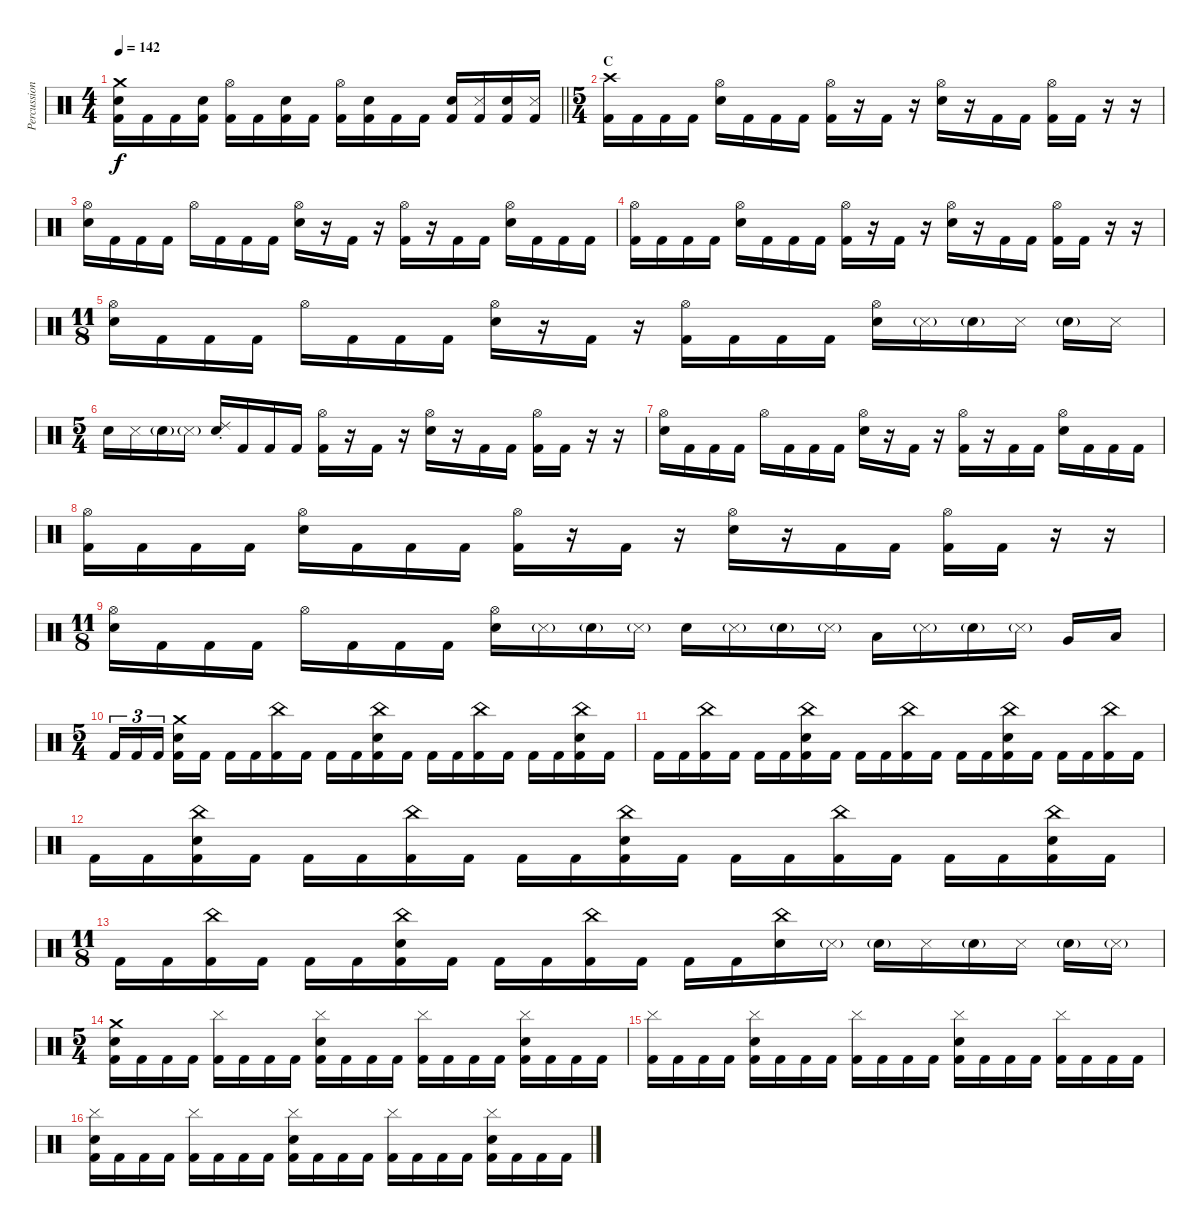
\track ("Percussion" "Percussion") {instrument percussion}
\staff {score}
\articulation defaults
\ts (4 4)
\tempo 142
\clef neutral
\barLineRight lightlight
\ks c
("Crash medium (hit)" "Snare (hit) 2" "Kick (hit) 2").16{dy f} "Kick (hit) 2".16 "Kick (hit) 2".16 ("Snare (hit) 2" "Kick (hit) 2").16 ("Hi-Hat (open)" "Kick (hit) 2").16 "Kick (hit) 2".16 ("Snare (hit) 2" "Kick (hit) 2").16 "Kick (hit) 2".16 ("Hi-Hat (open)" "Kick (hit) 2").16 ("Snare (hit) 2" "Kick (hit) 2").16 "Kick (hit) 2".16 "Kick (hit) 2".16 ("Snare (hit) 2" "Kick (hit) 2").16 ("Metronome (hit)" "Kick (hit) 2").16 ("Snare (hit) 2" "Kick (hit) 2").16 ("Metronome (hit)" "Kick (hit) 2").16 |
\ts (5 4)
\section ("" "C")
("Crash high (hit)" "Kick (hit) 2").16 "Kick (hit) 2".16 "Kick (hit) 2".16 "Kick (hit) 2".16 ("Hi-Hat (open)" "Snare (hit) 2").16 "Kick (hit) 2".16 "Kick (hit) 2".16 "Kick (hit) 2".16 ("Hi-Hat (open)" "Kick (hit) 2").16 r.16 "Kick (hit) 2".16 r.16 ("Hi-Hat (open)" "Snare (hit) 2").16 r.16 "Kick (hit) 2".16 "Kick (hit) 2".16 ("Hi-Hat (open)" "Kick (hit) 2").16 "Kick (hit) 2".16 r.16 r.16 |
("Hi-Hat (open)" "Snare (hit) 2").16 "Kick (hit) 2".16 "Kick (hit) 2".16 "Kick (hit) 2".16 "Hi-Hat (open)".16 "Kick (hit) 2".16 "Kick (hit) 2".16 "Kick (hit) 2".16 ("Hi-Hat (open)" "Snare (hit) 2").16 r.16 "Kick (hit) 2".16 r.16 ("Hi-Hat (open)" "Kick (hit) 2").16 r.16 "Kick (hit) 2".16 "Kick (hit) 2".16 ("Hi-Hat (open)" "Snare (hit) 2").16 "Kick (hit) 2".16 "Kick (hit) 2".16 "Kick (hit) 2".16 |
("Hi-Hat (open)" "Kick (hit) 2").16 "Kick (hit) 2".16 "Kick (hit) 2".16 "Kick (hit) 2".16 ("Hi-Hat (open)" "Snare (hit) 2").16 "Kick (hit) 2".16 "Kick (hit) 2".16 "Kick (hit) 2".16 ("Hi-Hat (open)" "Kick (hit) 2").16 r.16 "Kick (hit) 2".16 r.16 ("Hi-Hat (open)" "Snare (hit) 2").16 r.16 "Kick (hit) 2".16 "Kick (hit) 2".16 ("Hi-Hat (open)" "Kick (hit) 2").16 "Kick (hit) 2".16 r.16 r.16 |
\ts (11 8)
("Hi-Hat (open)" "Snare (hit) 2").16 "Kick (hit) 2".16 "Kick (hit) 2".16 "Kick (hit) 2".16 "Hi-Hat (open)".16 "Kick (hit) 2".16 "Kick (hit) 2".16 "Kick (hit) 2".16 ("Hi-Hat (open)" "Snare (hit) 2").16 r.16 "Kick (hit) 2".16 r.16 ("Hi-Hat (open)" "Kick (hit) 2").16 "Kick (hit) 2".16 "Kick (hit) 2".16 "Kick (hit) 2".16 ("Hi-Hat (open)" "Snare (hit) 2").16 "Metronome (hit)"{g}.16 "Snare (hit) 2"{g}.16 "Metronome (hit)".16 "Snare (hit) 2"{g}.16 "Metronome (hit)".16 |
\ts (5 4)
"Snare (hit) 2".16 "Metronome (hit)".16 "Snare (hit) 2"{g}.16 "Metronome (hit)"{g}.16 ("Ride (choke) 2" "Snare (hit) 2").16 "Kick (hit) 2".16 "Kick (hit) 2".16 "Kick (hit) 2".16 ("Hi-Hat (open)" "Kick (hit) 2").16 r.16 "Kick (hit) 2".16 r.16 ("Hi-Hat (open)" "Snare (hit) 2").16 r.16 "Kick (hit) 2".16 "Kick (hit) 2".16 ("Hi-Hat (open)" "Kick (hit) 2").16 "Kick (hit) 2".16 r.16 r.16 |
("Hi-Hat (open)" "Snare (hit) 2").16 "Kick (hit) 2".16 "Kick (hit) 2".16 "Kick (hit) 2".16 "Hi-Hat (open)".16 "Kick (hit) 2".16 "Kick (hit) 2".16 "Kick (hit) 2".16 ("Hi-Hat (open)" "Snare (hit) 2").16 r.16 "Kick (hit) 2".16 r.16 ("Hi-Hat (open)" "Kick (hit) 2").16 r.16 "Kick (hit) 2".16 "Kick (hit) 2".16 ("Hi-Hat (open)" "Snare (hit) 2").16 "Kick (hit) 2".16 "Kick (hit) 2".16 "Kick (hit) 2".16 |
("Hi-Hat (open)" "Kick (hit) 2").16 "Kick (hit) 2".16 "Kick (hit) 2".16 "Kick (hit) 2".16 ("Hi-Hat (open)" "Snare (hit) 2").16 "Kick (hit) 2".16 "Kick (hit) 2".16 "Kick (hit) 2".16 ("Hi-Hat (open)" "Kick (hit) 2").16 r.16 "Kick (hit) 2".16 r.16 ("Hi-Hat (open)" "Snare (hit) 2").16 r.16 "Kick (hit) 2".16 "Kick (hit) 2".16 ("Hi-Hat (open)" "Kick (hit) 2").16 "Kick (hit) 2".16 r.16 r.16 |
\ts (11 8)
("Hi-Hat (open)" "Snare (hit) 2").16 "Kick (hit) 2".16 "Kick (hit) 2".16 "Kick (hit) 2".16 "Hi-Hat (open)".16 "Kick (hit) 2".16 "Kick (hit) 2".16 "Kick (hit) 2".16 ("Hi-Hat (open)" "Snare (hit) 2").16 "Metronome (hit)"{g}.16 "Snare (hit) 2"{g}.16 "Metronome (hit)"{g}.16 "Snare (hit) 2".16 "Metronome (hit)"{g}.16 "Snare (hit) 2"{g}.16 "Metronome (hit)"{g}.16 "Low Tom (hit)".16 "Metronome (hit)"{g}.16 "Snare (hit) 2"{g}.16 "Metronome (hit)"{g}.16 "Very Low Tom (hit)".16 "Low Floor Tom (hit)".16 |
\ts (5 4)
"Kick (hit) 2".16{tu (3 2)} "Kick (hit) 2".16{tu (3 2)} "Kick (hit) 2".16{tu (3 2) beam splitsecondary} ("Crash medium (hit)" "Snare (hit) 2" "Kick (hit) 2").16 "Kick (hit) 2".16 "Kick (hit) 2".16 "Kick (hit) 2".16 ("China (hit)" "Kick (hit) 2").16 "Kick (hit) 2".16 "Kick (hit) 2".16 "Kick (hit) 2".16 ("China (hit)" "Snare (hit) 2" "Kick (hit) 2").16 "Kick (hit) 2".16 "Kick (hit) 2".16 "Kick (hit) 2".16 ("China (hit)" "Kick (hit) 2").16 "Kick (hit) 2".16 "Kick (hit) 2".16 "Kick (hit) 2".16 ("China (hit)" "Snare (hit) 2" "Kick (hit) 2").16 "Kick (hit) 2".16 |
"Kick (hit) 2".16 "Kick (hit) 2".16 ("China (hit)" "Kick (hit) 2").16 "Kick (hit) 2".16 "Kick (hit) 2".16 "Kick (hit) 2".16 ("China (hit)" "Snare (hit) 2" "Kick (hit) 2").16 "Kick (hit) 2".16 "Kick (hit) 2".16 "Kick (hit) 2".16 ("China (hit)" "Kick (hit) 2").16 "Kick (hit) 2".16 "Kick (hit) 2".16 "Kick (hit) 2".16 ("China (hit)" "Snare (hit) 2" "Kick (hit) 2").16 "Kick (hit) 2".16 "Kick (hit) 2".16 "Kick (hit) 2".16 ("China (hit)" "Kick (hit) 2").16 "Kick (hit) 2".16 |
"Kick (hit) 2".16 "Kick (hit) 2".16 ("China (hit)" "Snare (hit) 2" "Kick (hit) 2").16 "Kick (hit) 2".16 "Kick (hit) 2".16 "Kick (hit) 2".16 ("China (hit)" "Kick (hit) 2").16 "Kick (hit) 2".16 "Kick (hit) 2".16 "Kick (hit) 2".16 ("China (hit)" "Snare (hit) 2" "Kick (hit) 2").16 "Kick (hit) 2".16 "Kick (hit) 2".16 "Kick (hit) 2".16 ("China (hit)" "Kick (hit) 2").16 "Kick (hit) 2".16 "Kick (hit) 2".16 "Kick (hit) 2".16 ("China (hit)" "Snare (hit) 2" "Kick (hit) 2").16 "Kick (hit) 2".16 |
\ts (11 8)
"Kick (hit) 2".16 "Kick (hit) 2".16 ("China (hit)" "Kick (hit) 2").16 "Kick (hit) 2".16 "Kick (hit) 2".16 "Kick (hit) 2".16 ("China (hit)" "Snare (hit) 2" "Kick (hit) 2").16 "Kick (hit) 2".16 "Kick (hit) 2".16 "Kick (hit) 2".16 ("China (hit)" "Kick (hit) 2").16 "Kick (hit) 2".16 "Kick (hit) 2".16 "Kick (hit) 2".16 ("China (hit)" "Snare (hit) 2").16 "Metronome (hit)"{g}.16 "Snare (hit) 2"{g}.16 "Metronome (hit)".16 "Snare (hit) 2"{g}.16 "Metronome (hit)".16 "Snare (hit) 2"{g}.16 "Metronome (hit)"{g}.16 |
\ts (5 4)
("Crash medium (hit)" "Snare (hit) 2" "Kick (hit) 2").16 "Kick (hit) 2".16 "Kick (hit) 2".16 "Kick (hit) 2".16 ("Cymbal (hit)" "Kick (hit) 2").16 "Kick (hit) 2".16 "Kick (hit) 2".16 "Kick (hit) 2".16 ("Cymbal (hit)" "Snare (hit) 2" "Kick (hit) 2").16 "Kick (hit) 2".16 "Kick (hit) 2".16 "Kick (hit) 2".16 ("Cymbal (hit)" "Kick (hit) 2").16 "Kick (hit) 2".16 "Kick (hit) 2".16 "Kick (hit) 2".16 ("Cymbal (hit)" "Snare (hit) 2" "Kick (hit) 2").16 "Kick (hit) 2".16 "Kick (hit) 2".16 "Kick (hit) 2".16 |
("Cymbal (hit)" "Kick (hit) 2").16 "Kick (hit) 2".16 "Kick (hit) 2".16 "Kick (hit) 2".16 ("Cymbal (hit)" "Snare (hit) 2" "Kick (hit) 2").16 "Kick (hit) 2".16 "Kick (hit) 2".16 "Kick (hit) 2".16 ("Cymbal (hit)" "Kick (hit) 2").16 "Kick (hit) 2".16 "Kick (hit) 2".16 "Kick (hit) 2".16 ("Cymbal (hit)" "Snare (hit) 2" "Kick (hit) 2").16 "Kick (hit) 2".16 "Kick (hit) 2".16 "Kick (hit) 2".16 ("Cymbal (hit)" "Kick (hit) 2").16 "Kick (hit) 2".16 "Kick (hit) 2".16 "Kick (hit) 2".16 |
("Cymbal (hit)" "Snare (hit) 2" "Kick (hit) 2").16 "Kick (hit) 2".16 "Kick (hit) 2".16 "Kick (hit) 2".16 ("Cymbal (hit)" "Kick (hit) 2").16 "Kick (hit) 2".16 "Kick (hit) 2".16 "Kick (hit) 2".16 ("Cymbal (hit)" "Snare (hit) 2" "Kick (hit) 2").16 "Kick (hit) 2".16 "Kick (hit) 2".16 "Kick (hit) 2".16 ("Cymbal (hit)" "Kick (hit) 2").16 "Kick (hit) 2".16 "Kick (hit) 2".16 "Kick (hit) 2".16 ("Cymbal (hit)" "Snare (hit) 2" "Kick (hit) 2").16 "Kick (hit) 2".16 "Kick (hit) 2".16 "Kick (hit) 2".16
